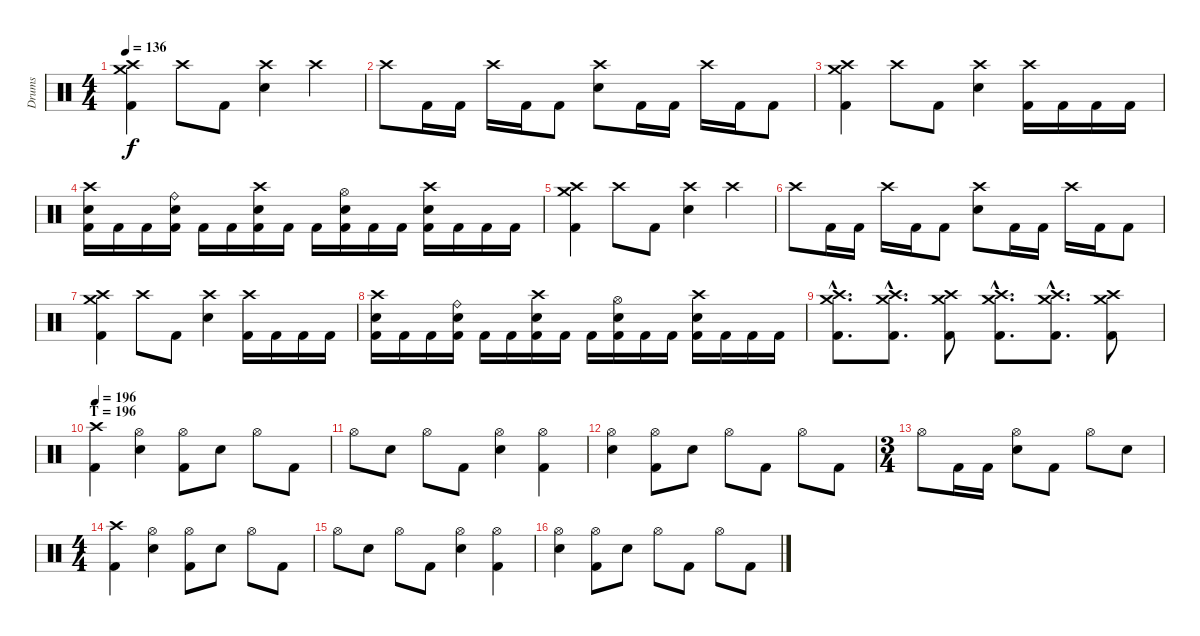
\track ("Drums" "Drums") {instrument percussion}
\staff {score}
\articulation defaults
\ts (4 4)
\section ("" "")
\tempo 136
\clef neutral
\ks c
("Crash high (hit)" "Crash medium (hit)" "Kick (hit) 2").4{dy f} "Crash high (hit)".8 "Kick (hit) 2".8 ("Crash high (hit)" "Electric Snare (hit)").4 "Crash high (hit)".4 |
"Crash high (hit)".8 "Kick (hit) 2".16 "Kick (hit) 2".16 "Crash high (hit)".16 "Kick (hit) 2".16 "Kick (hit) 2".8 ("Crash high (hit)" "Electric Snare (hit)").8 "Kick (hit) 2".16 "Kick (hit) 2".16 "Crash high (hit)".16 "Kick (hit) 2".16 "Kick (hit) 2".8 |
("Crash high (hit)" "Crash medium (hit)" "Kick (hit) 2").4 "Crash high (hit)".8 "Kick (hit) 2".8 ("Crash high (hit)" "Electric Snare (hit)").4 ("Crash high (hit)" "Kick (hit) 2").16 "Kick (hit) 2".16 "Kick (hit) 2".16 "Kick (hit) 2".16 |
("Crash high (hit)" "Electric Snare (hit)" "Kick (hit) 2").16 "Kick (hit) 2".16 "Kick (hit) 2".16 ("Ride (bell)" "Electric Snare (hit)" "Kick (hit) 2").16 "Kick (hit) 2".16 "Kick (hit) 2".16 ("Crash high (hit)" "Electric Snare (hit)" "Kick (hit) 2").16 "Kick (hit) 2".16 "Kick (hit) 2".16 ("Hi-Hat (open)" "Electric Snare (hit)" "Kick (hit) 2").16 "Kick (hit) 2".16 "Kick (hit) 2".16 ("Crash high (hit)" "Electric Snare (hit)" "Kick (hit) 2").16 "Kick (hit) 2".16 "Kick (hit) 2".16 "Kick (hit) 2".16 |
("Crash high (hit)" "Crash medium (hit)" "Kick (hit) 2").4 "Crash high (hit)".8 "Kick (hit) 2".8 ("Crash high (hit)" "Electric Snare (hit)").4 "Crash high (hit)".4 |
"Crash high (hit)".8 "Kick (hit) 2".16 "Kick (hit) 2".16 "Crash high (hit)".16 "Kick (hit) 2".16 "Kick (hit) 2".8 ("Crash high (hit)" "Electric Snare (hit)").8 "Kick (hit) 2".16 "Kick (hit) 2".16 "Crash high (hit)".16 "Kick (hit) 2".16 "Kick (hit) 2".8 |
("Crash high (hit)" "Crash medium (hit)" "Kick (hit) 2").4 "Crash high (hit)".8 "Kick (hit) 2".8 ("Crash high (hit)" "Electric Snare (hit)").4 ("Crash high (hit)" "Kick (hit) 2").16 "Kick (hit) 2".16 "Kick (hit) 2".16 "Kick (hit) 2".16 |
("Crash high (hit)" "Electric Snare (hit)" "Kick (hit) 2").16 "Kick (hit) 2".16 "Kick (hit) 2".16 ("Ride (bell)" "Electric Snare (hit)" "Kick (hit) 2").16 "Kick (hit) 2".16 "Kick (hit) 2".16 ("Crash high (hit)" "Electric Snare (hit)" "Kick (hit) 2").16 "Kick (hit) 2".16 "Kick (hit) 2".16 ("Hi-Hat (open)" "Electric Snare (hit)" "Kick (hit) 2").16 "Kick (hit) 2".16 "Kick (hit) 2".16 ("Crash high (hit)" "Electric Snare (hit)" "Kick (hit) 2").16 "Kick (hit) 2".16 "Kick (hit) 2".16 "Kick (hit) 2".16 |
("Crash high (hit)"{hac} "Crash medium (hit)"{hac} "Kick (hit) 2"{hac}).8{d} ("Crash high (hit)"{hac} "Crash medium (hit)"{hac} "Kick (hit) 2"{hac}).8{d} ("Crash high (hit)" "Crash medium (hit)" "Kick (hit) 2").8 ("Crash high (hit)"{hac} "Crash medium (hit)"{hac} "Kick (hit) 2"{hac}).8{d} ("Crash high (hit)"{hac} "Crash medium (hit)"{hac} "Kick (hit) 2"{hac}).8{d} ("Crash high (hit)" "Crash medium (hit)" "Kick (hit) 2").8 |
\section ("" "T = 196")
\tempo 196
("Crash high (hit)" "Kick (hit) 2").4 ("Hi-Hat (open)" "Electric Snare (hit)").4 ("Hi-Hat (open)" "Kick (hit) 2").8 "Electric Snare (hit)".8 "Hi-Hat (open)".8 "Kick (hit) 2".8 |
"Hi-Hat (open)".8 "Electric Snare (hit)".8 "Hi-Hat (open)".8 "Kick (hit) 2".8 ("Hi-Hat (open)" "Electric Snare (hit)").4 ("Hi-Hat (open)" "Kick (hit) 2").4 |
("Hi-Hat (open)" "Electric Snare (hit)").4 ("Hi-Hat (open)" "Kick (hit) 2").8 "Electric Snare (hit)".8 "Hi-Hat (open)".8 "Kick (hit) 2".8 "Hi-Hat (open)".8 "Kick (hit) 2".8 |
\ts (3 4)
"Hi-Hat (open)".8 "Kick (hit) 2".16 "Kick (hit) 2".16 ("Hi-Hat (open)" "Electric Snare (hit)").8 "Kick (hit) 2".8 "Hi-Hat (open)".8 "Electric Snare (hit)".8 |
\ts (4 4)
("Crash high (hit)" "Kick (hit) 2").4 ("Hi-Hat (open)" "Electric Snare (hit)").4 ("Hi-Hat (open)" "Kick (hit) 2").8 "Electric Snare (hit)".8 "Hi-Hat (open)".8 "Kick (hit) 2".8 |
"Hi-Hat (open)".8 "Electric Snare (hit)".8 "Hi-Hat (open)".8 "Kick (hit) 2".8 ("Hi-Hat (open)" "Electric Snare (hit)").4 ("Hi-Hat (open)" "Kick (hit) 2").4 |
("Hi-Hat (open)" "Electric Snare (hit)").4 ("Hi-Hat (open)" "Kick (hit) 2").8 "Electric Snare (hit)".8 "Hi-Hat (open)".8 "Kick (hit) 2".8 "Hi-Hat (open)".8 "Kick (hit) 2".8
